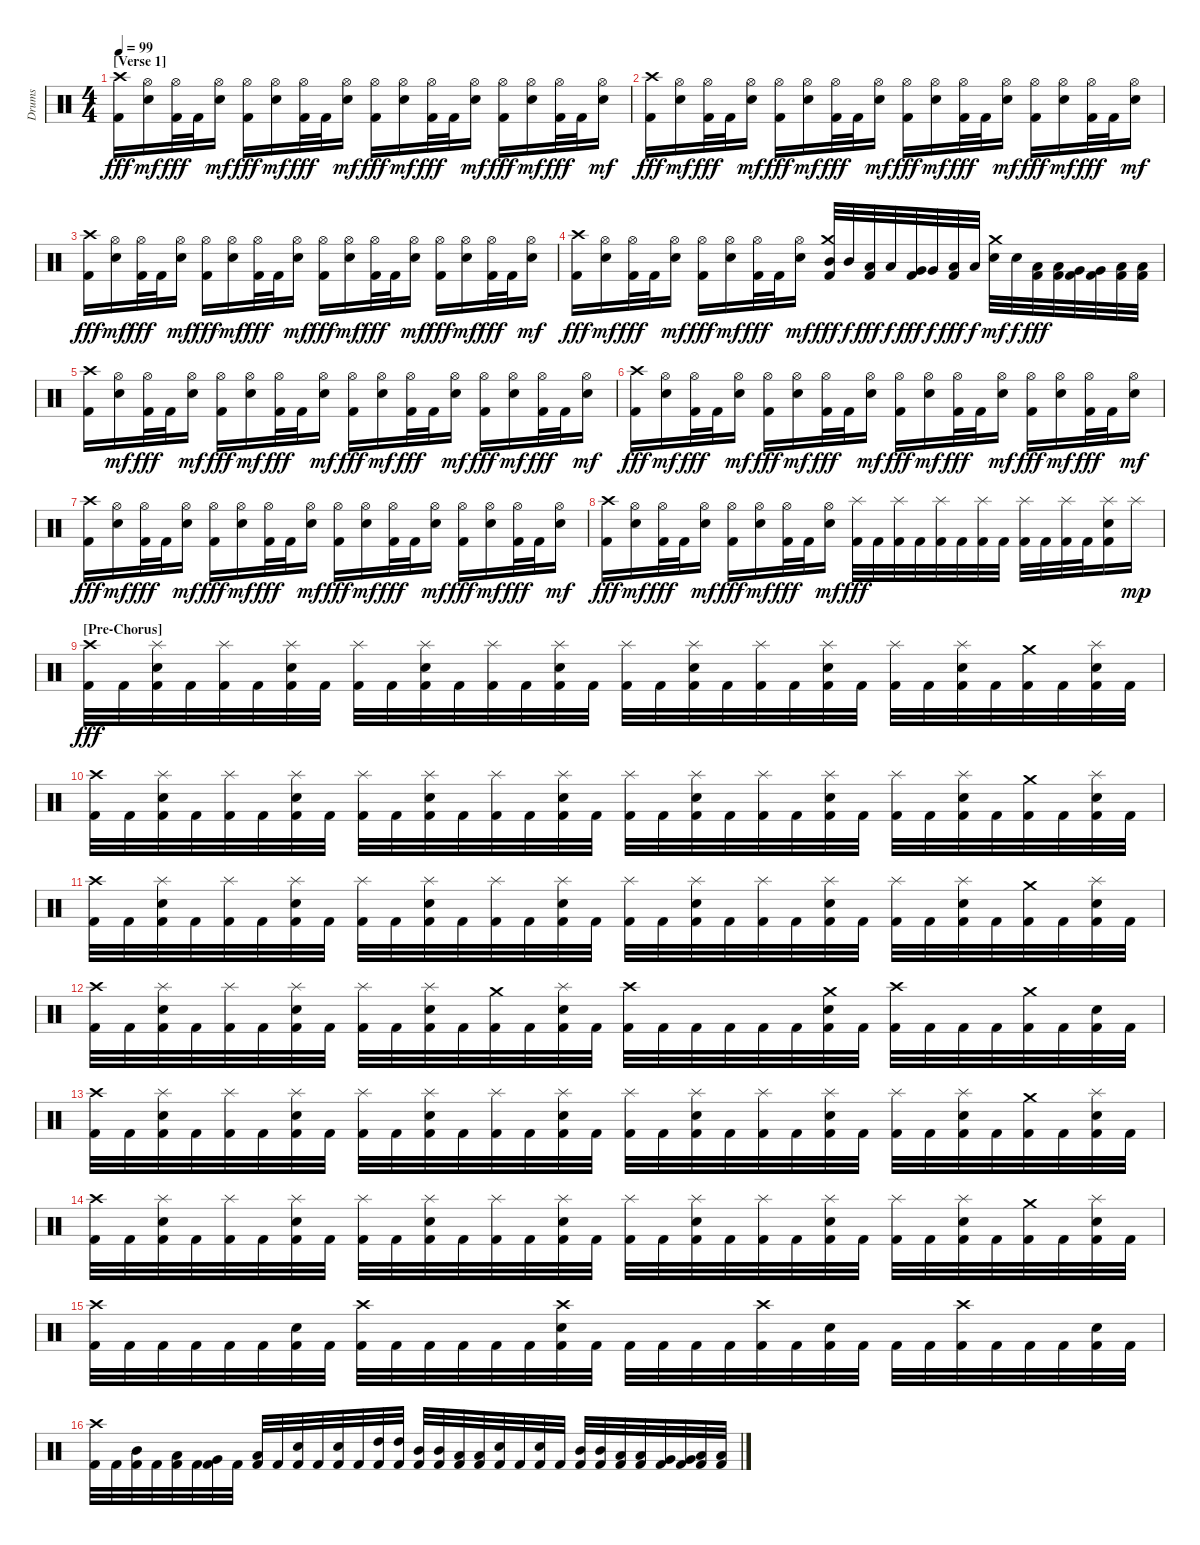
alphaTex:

\track ("Drums" "Drums") {instrument percussion}
\staff {score}
\articulation defaults
\ts (4 4)
\section ("" "[Verse 1]")
\tempo 99
\clef neutral
\ks c
("Crash high (hit)" "Kick (hit) 2").16{dy fff} ("Hi-Hat (open)" "Snare (hit) 2").16{dy mf} ("Hi-Hat (open)" "Kick (hit) 2").32{dy fff} "Kick (hit) 2".32 ("Hi-Hat (open)" "Snare (hit) 2").16{dy mf} ("Hi-Hat (open)" "Kick (hit) 2").16{dy fff} ("Hi-Hat (open)" "Snare (hit) 2").16{dy mf} ("Hi-Hat (open)" "Kick (hit) 2").32{dy fff} "Kick (hit) 2".32 ("Hi-Hat (open)" "Snare (hit) 2").16{dy mf} ("Hi-Hat (open)" "Kick (hit) 2").16{dy fff} ("Hi-Hat (open)" "Snare (hit) 2").16{dy mf} ("Hi-Hat (open)" "Kick (hit) 2").32{dy fff} "Kick (hit) 2".32 ("Hi-Hat (open)" "Snare (hit) 2").16{dy mf} ("Hi-Hat (open)" "Kick (hit) 2").16{dy fff} ("Hi-Hat (open)" "Snare (hit) 2").16{dy mf} ("Hi-Hat (open)" "Kick (hit) 2").32{dy fff} "Kick (hit) 2".32 ("Hi-Hat (open)" "Snare (hit) 2").16{dy mf} |
("Crash high (hit)" "Kick (hit) 2").16{dy fff} ("Hi-Hat (open)" "Snare (hit) 2").16{dy mf} ("Hi-Hat (open)" "Kick (hit) 2").32{dy fff} "Kick (hit) 2".32 ("Hi-Hat (open)" "Snare (hit) 2").16{dy mf} ("Hi-Hat (open)" "Kick (hit) 2").16{dy fff} ("Hi-Hat (open)" "Snare (hit) 2").16{dy mf} ("Hi-Hat (open)" "Kick (hit) 2").32{dy fff} "Kick (hit) 2".32 ("Hi-Hat (open)" "Snare (hit) 2").16{dy mf} ("Hi-Hat (open)" "Kick (hit) 2").16{dy fff} ("Hi-Hat (open)" "Snare (hit) 2").16{dy mf} ("Hi-Hat (open)" "Kick (hit) 2").32{dy fff} "Kick (hit) 2".32 ("Hi-Hat (open)" "Snare (hit) 2").16{dy mf} ("Hi-Hat (open)" "Kick (hit) 2").16{dy fff} ("Hi-Hat (open)" "Snare (hit) 2").16{dy mf} ("Hi-Hat (open)" "Kick (hit) 2").32{dy fff} "Kick (hit) 2".32 ("Hi-Hat (open)" "Snare (hit) 2").16{dy mf} |
("Crash high (hit)" "Kick (hit) 2").16{dy fff} ("Hi-Hat (open)" "Snare (hit) 2").16{dy mf} ("Hi-Hat (open)" "Kick (hit) 2").32{dy fff} "Kick (hit) 2".32 ("Hi-Hat (open)" "Snare (hit) 2").16{dy mf} ("Hi-Hat (open)" "Kick (hit) 2").16{dy fff} ("Hi-Hat (open)" "Snare (hit) 2").16{dy mf} ("Hi-Hat (open)" "Kick (hit) 2").32{dy fff} "Kick (hit) 2".32 ("Hi-Hat (open)" "Snare (hit) 2").16{dy mf} ("Hi-Hat (open)" "Kick (hit) 2").16{dy fff} ("Hi-Hat (open)" "Snare (hit) 2").16{dy mf} ("Hi-Hat (open)" "Kick (hit) 2").32{dy fff} "Kick (hit) 2".32 ("Hi-Hat (open)" "Snare (hit) 2").16{dy mf} ("Hi-Hat (open)" "Kick (hit) 2").16{dy fff} ("Hi-Hat (open)" "Snare (hit) 2").16{dy mf} ("Hi-Hat (open)" "Kick (hit) 2").32{dy fff} "Kick (hit) 2".32 ("Hi-Hat (open)" "Snare (hit) 2").16{dy mf} |
("Crash high (hit)" "Kick (hit) 2").16{dy fff} ("Hi-Hat (open)" "Snare (hit) 2").16{dy mf} ("Hi-Hat (open)" "Kick (hit) 2").32{dy fff} "Kick (hit) 2".32 ("Hi-Hat (open)" "Snare (hit) 2").16{dy mf} ("Hi-Hat (open)" "Kick (hit) 2").16{dy fff} ("Hi-Hat (open)" "Snare (hit) 2").16{dy mf} ("Hi-Hat (open)" "Kick (hit) 2").32{dy fff} "Kick (hit) 2".32 ("Hi-Hat (open)" "Snare (hit) 2").16{dy mf} ("Crash medium (hit)" "Mid Tom (hit)" "Kick (hit) 2").32{dy fff} "Mid Tom (hit)".32{dy f} ("Low Tom (hit)" "Kick (hit) 2").32{dy fff} "Low Tom (hit)".32{dy f} ("Very Low Tom (hit)" "Kick (hit) 2").32{dy fff} "Very Low Tom (hit)".32{dy f} ("Low Floor Tom (hit)" "Kick (hit) 2").32{dy fff} "Low Floor Tom (hit)".32{dy f} ("Crash medium (hit)" "Snare (hit) 2").32{dy mf} "Snare (hit) 2".32{dy f} ("Low Tom (hit)" "Kick (hit) 2").32{dy fff} ("Low Tom (hit)" "Kick (hit) 2").32 ("Very Low Tom (hit)" "Kick (hit) 2").32 ("Very Low Tom (hit)" "Kick (hit) 2").32 ("Low Floor Tom (hit)" "Kick (hit) 2").32 ("Low Floor Tom (hit)" "Kick (hit) 2").32 |
("Crash high (hit)" "Kick (hit) 2").16 ("Hi-Hat (open)" "Snare (hit) 2").16{dy mf} ("Hi-Hat (open)" "Kick (hit) 2").32{dy fff} "Kick (hit) 2".32 ("Hi-Hat (open)" "Snare (hit) 2").16{dy mf} ("Hi-Hat (open)" "Kick (hit) 2").16{dy fff} ("Hi-Hat (open)" "Snare (hit) 2").16{dy mf} ("Hi-Hat (open)" "Kick (hit) 2").32{dy fff} "Kick (hit) 2".32 ("Hi-Hat (open)" "Snare (hit) 2").16{dy mf} ("Hi-Hat (open)" "Kick (hit) 2").16{dy fff} ("Hi-Hat (open)" "Snare (hit) 2").16{dy mf} ("Hi-Hat (open)" "Kick (hit) 2").32{dy fff} "Kick (hit) 2".32 ("Hi-Hat (open)" "Snare (hit) 2").16{dy mf} ("Hi-Hat (open)" "Kick (hit) 2").16{dy fff} ("Hi-Hat (open)" "Snare (hit) 2").16{dy mf} ("Hi-Hat (open)" "Kick (hit) 2").32{dy fff} "Kick (hit) 2".32 ("Hi-Hat (open)" "Snare (hit) 2").16{dy mf} |
("Crash high (hit)" "Kick (hit) 2").16{dy fff} ("Hi-Hat (open)" "Snare (hit) 2").16{dy mf} ("Hi-Hat (open)" "Kick (hit) 2").32{dy fff} "Kick (hit) 2".32 ("Hi-Hat (open)" "Snare (hit) 2").16{dy mf} ("Hi-Hat (open)" "Kick (hit) 2").16{dy fff} ("Hi-Hat (open)" "Snare (hit) 2").16{dy mf} ("Hi-Hat (open)" "Kick (hit) 2").32{dy fff} "Kick (hit) 2".32 ("Hi-Hat (open)" "Snare (hit) 2").16{dy mf} ("Hi-Hat (open)" "Kick (hit) 2").16{dy fff} ("Hi-Hat (open)" "Snare (hit) 2").16{dy mf} ("Hi-Hat (open)" "Kick (hit) 2").32{dy fff} "Kick (hit) 2".32 ("Hi-Hat (open)" "Snare (hit) 2").16{dy mf} ("Hi-Hat (open)" "Kick (hit) 2").16{dy fff} ("Hi-Hat (open)" "Snare (hit) 2").16{dy mf} ("Hi-Hat (open)" "Kick (hit) 2").32{dy fff} "Kick (hit) 2".32 ("Hi-Hat (open)" "Snare (hit) 2").16{dy mf} |
("Crash high (hit)" "Kick (hit) 2").16{dy fff} ("Hi-Hat (open)" "Snare (hit) 2").16{dy mf} ("Hi-Hat (open)" "Kick (hit) 2").32{dy fff} "Kick (hit) 2".32 ("Hi-Hat (open)" "Snare (hit) 2").16{dy mf} ("Hi-Hat (open)" "Kick (hit) 2").16{dy fff} ("Hi-Hat (open)" "Snare (hit) 2").16{dy mf} ("Hi-Hat (open)" "Kick (hit) 2").32{dy fff} "Kick (hit) 2".32 ("Hi-Hat (open)" "Snare (hit) 2").16{dy mf} ("Hi-Hat (open)" "Kick (hit) 2").16{dy fff} ("Hi-Hat (open)" "Snare (hit) 2").16{dy mf} ("Hi-Hat (open)" "Kick (hit) 2").32{dy fff} "Kick (hit) 2".32 ("Hi-Hat (open)" "Snare (hit) 2").16{dy mf} ("Hi-Hat (open)" "Kick (hit) 2").16{dy fff} ("Hi-Hat (open)" "Snare (hit) 2").16{dy mf} ("Hi-Hat (open)" "Kick (hit) 2").32{dy fff} "Kick (hit) 2".32 ("Hi-Hat (open)" "Snare (hit) 2").16{dy mf} |
("Crash high (hit)" "Kick (hit) 2").16{dy fff} ("Hi-Hat (open)" "Snare (hit) 2").16{dy mf} ("Hi-Hat (open)" "Kick (hit) 2").32{dy fff} "Kick (hit) 2".32 ("Hi-Hat (open)" "Snare (hit) 2").16{dy mf} ("Hi-Hat (open)" "Kick (hit) 2").16{dy fff} ("Hi-Hat (open)" "Snare (hit) 2").16{dy mf} ("Hi-Hat (open)" "Kick (hit) 2").32{dy fff} "Kick (hit) 2".32 ("Hi-Hat (open)" "Snare (hit) 2").16{dy mf} ("Splash (hit)" "Kick (hit) 2").32{dy fff} "Kick (hit) 2".32 ("Splash (hit)" "Kick (hit) 2").32 "Kick (hit) 2".32 ("Splash (hit)" "Kick (hit) 2").32 "Kick (hit) 2".32 ("Splash (hit)" "Kick (hit) 2").32 "Kick (hit) 2".32 ("Splash (hit)" "Kick (hit) 2").32 "Kick (hit) 2".32 ("Splash (hit)" "Kick (hit) 2").32 "Kick (hit) 2".32 ("Splash (hit)" "Snare (hit) 2" "Kick (hit) 2").16 "Splash (hit)".16{dy mp} |
\section ("" "[Pre-Chorus]")
("Crash high (hit)" "Kick (hit) 2").32{dy fff} "Kick (hit) 2".32 ("Splash (hit)" "Snare (hit) 2" "Kick (hit) 2").32 "Kick (hit) 2".32 ("Splash (hit)" "Kick (hit) 2").32 "Kick (hit) 2".32 ("Splash (hit)" "Snare (hit) 2" "Kick (hit) 2").32 "Kick (hit) 2".32 ("Splash (hit)" "Kick (hit) 2").32 "Kick (hit) 2".32 ("Splash (hit)" "Snare (hit) 2" "Kick (hit) 2").32 "Kick (hit) 2".32 ("Splash (hit)" "Kick (hit) 2").32 "Kick (hit) 2".32 ("Splash (hit)" "Snare (hit) 2" "Kick (hit) 2").32 "Kick (hit) 2".32 ("Splash (hit)" "Kick (hit) 2").32 "Kick (hit) 2".32 ("Splash (hit)" "Snare (hit) 2" "Kick (hit) 2").32 "Kick (hit) 2".32 ("Splash (hit)" "Kick (hit) 2").32 "Kick (hit) 2".32 ("Splash (hit)" "Snare (hit) 2" "Kick (hit) 2").32 "Kick (hit) 2".32 ("Splash (hit)" "Kick (hit) 2").32 "Kick (hit) 2".32 ("Splash (hit)" "Snare (hit) 2" "Kick (hit) 2").32 "Kick (hit) 2".32 ("Crash medium (hit)" "Kick (hit) 2").32 "Kick (hit) 2".32 ("Splash (hit)" "Snare (hit) 2" "Kick (hit) 2").32 "Kick (hit) 2".32 |
("Crash high (hit)" "Kick (hit) 2").32 "Kick (hit) 2".32 ("Splash (hit)" "Snare (hit) 2" "Kick (hit) 2").32 "Kick (hit) 2".32 ("Splash (hit)" "Kick (hit) 2").32 "Kick (hit) 2".32 ("Splash (hit)" "Snare (hit) 2" "Kick (hit) 2").32 "Kick (hit) 2".32 ("Splash (hit)" "Kick (hit) 2").32 "Kick (hit) 2".32 ("Splash (hit)" "Snare (hit) 2" "Kick (hit) 2").32 "Kick (hit) 2".32 ("Splash (hit)" "Kick (hit) 2").32 "Kick (hit) 2".32 ("Splash (hit)" "Snare (hit) 2" "Kick (hit) 2").32 "Kick (hit) 2".32 ("Splash (hit)" "Kick (hit) 2").32 "Kick (hit) 2".32 ("Splash (hit)" "Snare (hit) 2" "Kick (hit) 2").32 "Kick (hit) 2".32 ("Splash (hit)" "Kick (hit) 2").32 "Kick (hit) 2".32 ("Splash (hit)" "Snare (hit) 2" "Kick (hit) 2").32 "Kick (hit) 2".32 ("Splash (hit)" "Kick (hit) 2").32 "Kick (hit) 2".32 ("Splash (hit)" "Snare (hit) 2" "Kick (hit) 2").32 "Kick (hit) 2".32 ("Crash medium (hit)" "Kick (hit) 2").32 "Kick (hit) 2".32 ("Splash (hit)" "Snare (hit) 2" "Kick (hit) 2").32 "Kick (hit) 2".32 |
("Crash high (hit)" "Kick (hit) 2").32 "Kick (hit) 2".32 ("Splash (hit)" "Snare (hit) 2" "Kick (hit) 2").32 "Kick (hit) 2".32 ("Splash (hit)" "Kick (hit) 2").32 "Kick (hit) 2".32 ("Splash (hit)" "Snare (hit) 2" "Kick (hit) 2").32 "Kick (hit) 2".32 ("Splash (hit)" "Kick (hit) 2").32 "Kick (hit) 2".32 ("Splash (hit)" "Snare (hit) 2" "Kick (hit) 2").32 "Kick (hit) 2".32 ("Splash (hit)" "Kick (hit) 2").32 "Kick (hit) 2".32 ("Splash (hit)" "Snare (hit) 2" "Kick (hit) 2").32 "Kick (hit) 2".32 ("Splash (hit)" "Kick (hit) 2").32 "Kick (hit) 2".32 ("Splash (hit)" "Snare (hit) 2" "Kick (hit) 2").32 "Kick (hit) 2".32 ("Splash (hit)" "Kick (hit) 2").32 "Kick (hit) 2".32 ("Splash (hit)" "Snare (hit) 2" "Kick (hit) 2").32 "Kick (hit) 2".32 ("Splash (hit)" "Kick (hit) 2").32 "Kick (hit) 2".32 ("Splash (hit)" "Snare (hit) 2" "Kick (hit) 2").32 "Kick (hit) 2".32 ("Crash medium (hit)" "Kick (hit) 2").32 "Kick (hit) 2".32 ("Splash (hit)" "Snare (hit) 2" "Kick (hit) 2").32 "Kick (hit) 2".32 |
("Crash high (hit)" "Kick (hit) 2").32 "Kick (hit) 2".32 ("Splash (hit)" "Snare (hit) 2" "Kick (hit) 2").32 "Kick (hit) 2".32 ("Splash (hit)" "Kick (hit) 2").32 "Kick (hit) 2".32 ("Splash (hit)" "Snare (hit) 2" "Kick (hit) 2").32 "Kick (hit) 2".32 ("Splash (hit)" "Kick (hit) 2").32 "Kick (hit) 2".32 ("Splash (hit)" "Snare (hit) 2" "Kick (hit) 2").32 "Kick (hit) 2".32 ("Crash medium (hit)" "Kick (hit) 2").32 "Kick (hit) 2".32 ("Splash (hit)" "Snare (hit) 2" "Kick (hit) 2").32 "Kick (hit) 2".32 ("Crash high (hit)" "Kick (hit) 2").32 "Kick (hit) 2".32 "Kick (hit) 2".32 "Kick (hit) 2".32 "Kick (hit) 2".32 "Kick (hit) 2".32 ("Crash medium (hit)" "Snare (hit) 2" "Kick (hit) 2").32 "Kick (hit) 2".32 ("Crash high (hit)" "Kick (hit) 2").32 "Kick (hit) 2".32 "Kick (hit) 2".32 "Kick (hit) 2".32 ("Crash medium (hit)" "Kick (hit) 2").32 "Kick (hit) 2".32 ("Snare (hit) 2" "Kick (hit) 2").32 "Kick (hit) 2".32 |
("Crash high (hit)" "Kick (hit) 2").32 "Kick (hit) 2".32 ("Splash (hit)" "Snare (hit) 2" "Kick (hit) 2").32 "Kick (hit) 2".32 ("Splash (hit)" "Kick (hit) 2").32 "Kick (hit) 2".32 ("Splash (hit)" "Snare (hit) 2" "Kick (hit) 2").32 "Kick (hit) 2".32 ("Splash (hit)" "Kick (hit) 2").32 "Kick (hit) 2".32 ("Splash (hit)" "Snare (hit) 2" "Kick (hit) 2").32 "Kick (hit) 2".32 ("Splash (hit)" "Kick (hit) 2").32 "Kick (hit) 2".32 ("Splash (hit)" "Snare (hit) 2" "Kick (hit) 2").32 "Kick (hit) 2".32 ("Splash (hit)" "Kick (hit) 2").32 "Kick (hit) 2".32 ("Splash (hit)" "Snare (hit) 2" "Kick (hit) 2").32 "Kick (hit) 2".32 ("Splash (hit)" "Kick (hit) 2").32 "Kick (hit) 2".32 ("Splash (hit)" "Snare (hit) 2" "Kick (hit) 2").32 "Kick (hit) 2".32 ("Splash (hit)" "Kick (hit) 2").32 "Kick (hit) 2".32 ("Splash (hit)" "Snare (hit) 2" "Kick (hit) 2").32 "Kick (hit) 2".32 ("Crash medium (hit)" "Kick (hit) 2").32 "Kick (hit) 2".32 ("Splash (hit)" "Snare (hit) 2" "Kick (hit) 2").32 "Kick (hit) 2".32 |
("Crash high (hit)" "Kick (hit) 2").32 "Kick (hit) 2".32 ("Splash (hit)" "Snare (hit) 2" "Kick (hit) 2").32 "Kick (hit) 2".32 ("Splash (hit)" "Kick (hit) 2").32 "Kick (hit) 2".32 ("Splash (hit)" "Snare (hit) 2" "Kick (hit) 2").32 "Kick (hit) 2".32 ("Splash (hit)" "Kick (hit) 2").32 "Kick (hit) 2".32 ("Splash (hit)" "Snare (hit) 2" "Kick (hit) 2").32 "Kick (hit) 2".32 ("Splash (hit)" "Kick (hit) 2").32 "Kick (hit) 2".32 ("Splash (hit)" "Snare (hit) 2" "Kick (hit) 2").32 "Kick (hit) 2".32 ("Splash (hit)" "Kick (hit) 2").32 "Kick (hit) 2".32 ("Splash (hit)" "Snare (hit) 2" "Kick (hit) 2").32 "Kick (hit) 2".32 ("Splash (hit)" "Kick (hit) 2").32 "Kick (hit) 2".32 ("Splash (hit)" "Snare (hit) 2" "Kick (hit) 2").32 "Kick (hit) 2".32 ("Splash (hit)" "Kick (hit) 2").32 "Kick (hit) 2".32 ("Splash (hit)" "Snare (hit) 2" "Kick (hit) 2").32 "Kick (hit) 2".32 ("Crash medium (hit)" "Kick (hit) 2").32 "Kick (hit) 2".32 ("Splash (hit)" "Snare (hit) 2" "Kick (hit) 2").32 "Kick (hit) 2".32 |
("Crash high (hit)" "Kick (hit) 2").32 "Kick (hit) 2".32 "Kick (hit) 2".32 "Kick (hit) 2".32 "Kick (hit) 2".32 "Kick (hit) 2".32 ("Snare (hit) 2" "Kick (hit) 2").32 "Kick (hit) 2".32 ("Crash high (hit)" "Kick (hit) 2").32 "Kick (hit) 2".32 "Kick (hit) 2".32 "Kick (hit) 2".32 "Kick (hit) 2".32 "Kick (hit) 2".32 ("Crash high (hit)" "Snare (hit) 2" "Kick (hit) 2").32 "Kick (hit) 2".32 "Kick (hit) 2".32 "Kick (hit) 2".32 "Kick (hit) 2".32 "Kick (hit) 2".32 ("Crash high (hit)" "Kick (hit) 2").32 "Kick (hit) 2".32 ("Snare (hit) 2" "Kick (hit) 2").32 "Kick (hit) 2".32 "Kick (hit) 2".32 "Kick (hit) 2".32 ("Crash high (hit)" "Kick (hit) 2").32 "Kick (hit) 2".32 "Kick (hit) 2".32 "Kick (hit) 2".32 ("Snare (hit) 2" "Kick (hit) 2").32 "Kick (hit) 2".32 |
("Crash high (hit)" "Kick (hit) 2").32 "Kick (hit) 2".32 ("Mid Tom (hit)" "Kick (hit) 2").32 "Kick (hit) 2".32 ("Low Tom (hit)" "Kick (hit) 2").32 "Kick (hit) 2".32 ("Very Low Tom (hit)" "Kick (hit) 2").32 "Kick (hit) 2".32 ("Low Floor Tom (hit)" "Kick (hit) 2").32 "Kick (hit) 2".32 ("Snare (hit) 2" "Kick (hit) 2").32 "Kick (hit) 2".32 ("Snare (hit) 2" "Kick (hit) 2").32 "Kick (hit) 2".32 ("High Tom (hit)" "Kick (hit) 2").32 ("High Tom (hit)" "Kick (hit) 2").32 ("Mid Tom (hit)" "Kick (hit) 2").32 ("Mid Tom (hit)" "Kick (hit) 2").32 ("Low Tom (hit)" "Kick (hit) 2").32 ("Low Tom (hit)" "Kick (hit) 2").32 ("Snare (hit) 2" "Kick (hit) 2").32 "Kick (hit) 2".32 ("Snare (hit) 2" "Kick (hit) 2").32 "Kick (hit) 2".32 ("Mid Tom (hit)" "Kick (hit) 2").32 ("Mid Tom (hit)" "Kick (hit) 2").32 ("Low Tom (hit)" "Kick (hit) 2").32 ("Low Tom (hit)" "Kick (hit) 2").32 ("Very Low Tom (hit)" "Kick (hit) 2").32 ("Very Low Tom (hit)" "Kick (hit) 2").32 ("Low Floor Tom (hit)" "Kick (hit) 2").32 ("Low Floor Tom (hit)" "Kick (hit) 2").32
